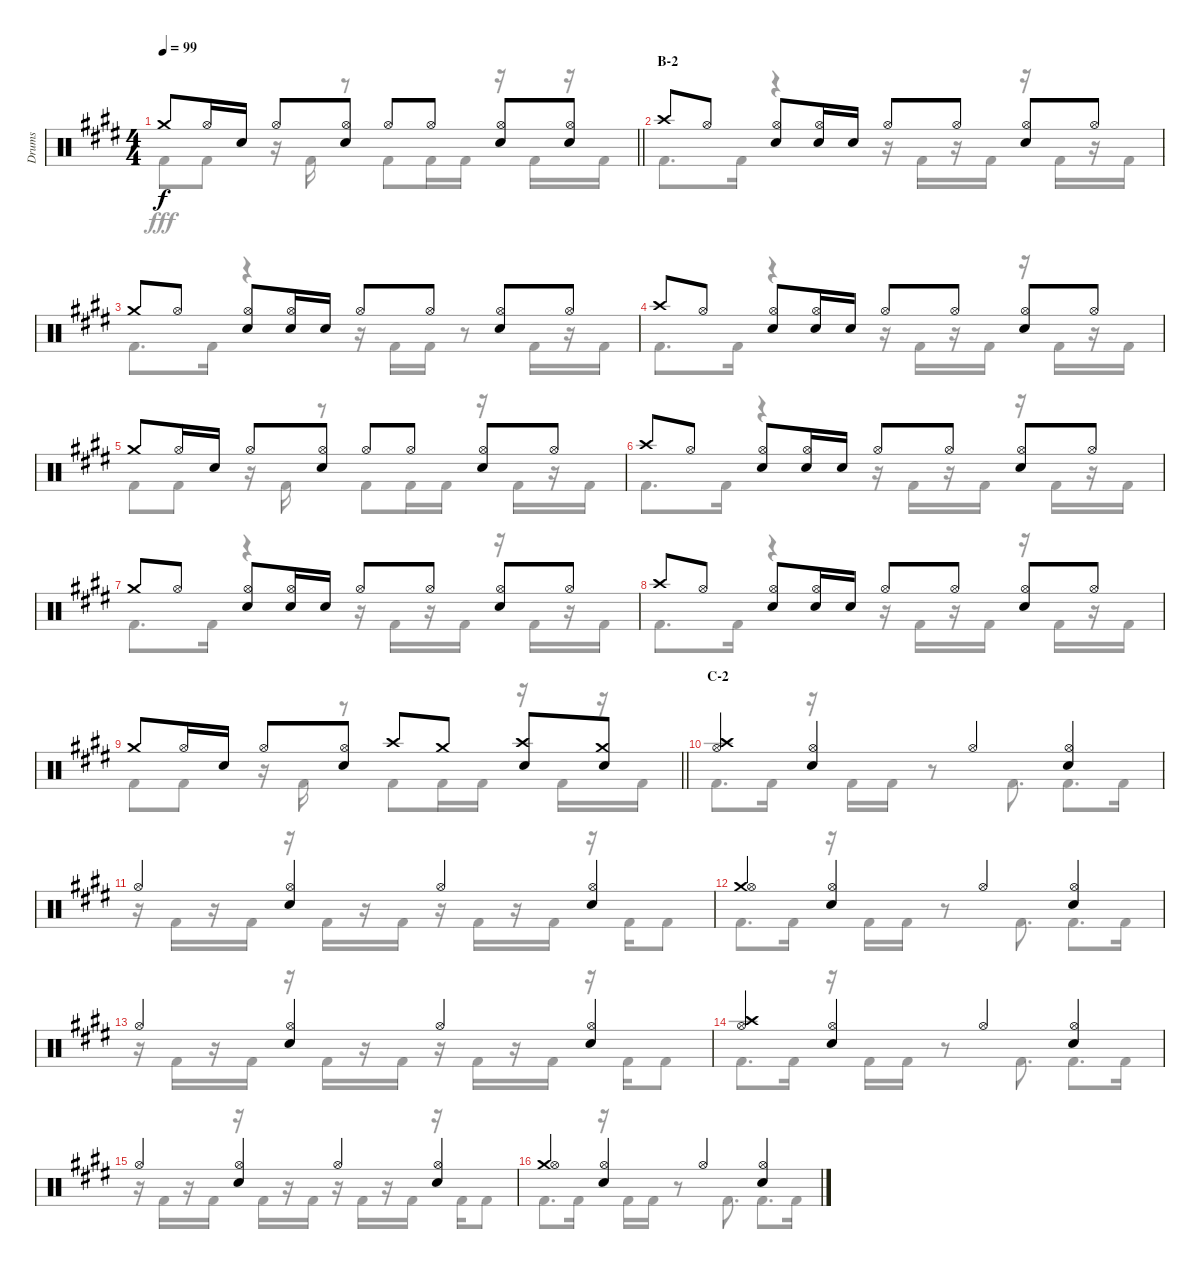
\track ("Drums" "Drums") {instrument percussion}
\staff {score}
\articulation defaults
\voice
\ts (4 4)
\tempo 99
\clef neutral
\barLineRight lightlight
\ks e "Crash medium (hit)".8{dy f} "Hi-Hat (open)".16 "Snare (hit) 2".16 "Hi-Hat (open)".8
("Hi-Hat (open)" "Snare (hit) 2").8 "Hi-Hat (open)".8 "Hi-Hat (open)".8 ("Hi-Hat (open)" "Snare (hit) 2").8 ("Hi-Hat (open)" "Snare (hit) 2").8 |
\section ("" "B-2")
"Crash high (hit)".8 "Hi-Hat (open)".8 ("Hi-Hat (open)" "Snare (hit) 2").8 ("Hi-Hat (open)" "Snare (hit) 2").16 "Snare (hit) 2".16 "Hi-Hat (open)".8 "Hi-Hat (open)".8 ("Hi-Hat (open)" "Snare (hit) 2").8 "Hi-Hat (open)".8 |
"Crash medium (hit)".8 "Hi-Hat (open)".8 ("Hi-Hat (open)" "Snare (hit) 2").8 ("Hi-Hat (open)" "Snare (hit) 2").16 "Snare (hit) 2".16 "Hi-Hat (open)".8 "Hi-Hat (open)".8 ("Hi-Hat (open)" "Snare (hit) 2").8 "Hi-Hat (open)".8 |
"Crash high (hit)".8 "Hi-Hat (open)".8 ("Hi-Hat (open)" "Snare (hit) 2").8 ("Hi-Hat (open)" "Snare (hit) 2").16 "Snare (hit) 2".16 "Hi-Hat (open)".8 "Hi-Hat (open)".8 ("Hi-Hat (open)" "Snare (hit) 2").8 "Hi-Hat (open)".8 |
"Crash medium (hit)".8 "Hi-Hat (open)".16 "Snare (hit) 2".16 "Hi-Hat (open)".8 ("Hi-Hat (open)" "Snare (hit) 2").8 "Hi-Hat (open)".8 "Hi-Hat (open)".8 ("Hi-Hat (open)" "Snare (hit) 2").8 "Hi-Hat (open)".8 |
"Crash high (hit)".8 "Hi-Hat (open)".8 ("Hi-Hat (open)" "Snare (hit) 2").8 ("Hi-Hat (open)" "Snare (hit) 2").16 "Snare (hit) 2".16 "Hi-Hat (open)".8 "Hi-Hat (open)".8 ("Hi-Hat (open)" "Snare (hit) 2").8 "Hi-Hat (open)".8 |
"Crash medium (hit)".8 "Hi-Hat (open)".8 ("Hi-Hat (open)" "Snare (hit) 2").8 ("Hi-Hat (open)" "Snare (hit) 2").16 "Snare (hit) 2".16 "Hi-Hat (open)".8 "Hi-Hat (open)".8 ("Hi-Hat (open)" "Snare (hit) 2").8 "Hi-Hat (open)".8 |
"Crash high (hit)".8 "Hi-Hat (open)".8 ("Hi-Hat (open)" "Snare (hit) 2").8 ("Hi-Hat (open)" "Snare (hit) 2").16 "Snare (hit) 2".16 "Hi-Hat (open)".8 "Hi-Hat (open)".8 ("Hi-Hat (open)" "Snare (hit) 2").8 "Hi-Hat (open)".8 |
\barLineRight lightlight "Crash medium (hit)".8 "Hi-Hat (open)".16 "Snare (hit) 2".16 "Hi-Hat (open)".8
("Hi-Hat (open)" "Snare (hit) 2").8 "Crash high (hit)".8 "Crash medium (hit)".8 ("Crash high (hit)" "Snare (hit) 2").8 ("Crash medium (hit)" "Snare (hit) 2").8 |
\section ("" "C-2")
("Crash high (hit)" "Hi-Hat (open)").4 ("Hi-Hat (open)" "Snare (hit) 2").4 "Hi-Hat (open)".4 ("Hi-Hat (open)" "Snare (hit) 2").4 |
"Hi-Hat (open)".4 ("Hi-Hat (open)" "Snare (hit) 2").4 "Hi-Hat (open)".4 ("Hi-Hat (open)" "Snare (hit) 2").4 |
("Crash medium (hit)" "Hi-Hat (open)").4 ("Hi-Hat (open)" "Snare (hit) 2").4 "Hi-Hat (open)".4 ("Hi-Hat (open)" "Snare (hit) 2").4 |
"Hi-Hat (open)".4 ("Hi-Hat (open)" "Snare (hit) 2").4 "Hi-Hat (open)".4 ("Hi-Hat (open)" "Snare (hit) 2").4 |
("Crash high (hit)" "Hi-Hat (open)").4 ("Hi-Hat (open)" "Snare (hit) 2").4 "Hi-Hat (open)".4 ("Hi-Hat (open)" "Snare (hit) 2").4 |
"Hi-Hat (open)".4 ("Hi-Hat (open)" "Snare (hit) 2").4 "Hi-Hat (open)".4 ("Hi-Hat (open)" "Snare (hit) 2").4 |
("Crash medium (hit)" "Hi-Hat (open)").4 ("Hi-Hat (open)" "Snare (hit) 2").4 "Hi-Hat (open)".4 ("Hi-Hat (open)" "Snare (hit) 2").4
\voice
\clef neutral
\ottava regular
\simile none
\barLineRight lightlight
\ks e "Kick (hit) 2".8{dy fff} "Kick (hit) 2".8
r.16 "Kick (hit) 2".16 r.8 "Kick (hit) 2".8 "Kick (hit) 2".16 "Kick (hit) 2".16 r.16 "Kick (hit) 2".16 r.16 "Kick (hit) 2".16 |
"Kick (hit) 2".8{d} "Kick (hit) 2".16 r.4 r.16 "Kick (hit) 2".16 r.16 "Kick (hit) 2".16 r.16 "Kick (hit) 2".16 r.16 "Kick (hit) 2".16 |
"Kick (hit) 2".8{d} "Kick (hit) 2".16 r.4 r.16 "Kick (hit) 2".16 "Kick (hit) 2".16 r.8 "Kick (hit) 2".16 r.16 "Kick (hit) 2".16 |
"Kick (hit) 2".8{d} "Kick (hit) 2".16 r.4 r.16 "Kick (hit) 2".16 r.16 "Kick (hit) 2".16 r.16 "Kick (hit) 2".16 r.16 "Kick (hit) 2".16 |
"Kick (hit) 2".8 "Kick (hit) 2".8 r.16 "Kick (hit) 2".16 r.8 "Kick (hit) 2".8 "Kick (hit) 2".16 "Kick (hit) 2".16 r.16 "Kick (hit) 2".16 r.16 "Kick (hit) 2".16 |
"Kick (hit) 2".8{d} "Kick (hit) 2".16 r.4 r.16 "Kick (hit) 2".16 r.16 "Kick (hit) 2".16 r.16 "Kick (hit) 2".16 r.16 "Kick (hit) 2".16 |
"Kick (hit) 2".8{d} "Kick (hit) 2".16 r.4 r.16 "Kick (hit) 2".16 r.16 "Kick (hit) 2".16 r.16 "Kick (hit) 2".16 r.16 "Kick (hit) 2".16 |
"Kick (hit) 2".8{d} "Kick (hit) 2".16 r.4 r.16 "Kick (hit) 2".16 r.16 "Kick (hit) 2".16 r.16 "Kick (hit) 2".16 r.16 "Kick (hit) 2".16 |
\barLineRight lightlight "Kick (hit) 2".8 "Kick (hit) 2".8
r.16 "Kick (hit) 2".16 r.8 "Kick (hit) 2".8 "Kick (hit) 2".16 "Kick (hit) 2".16 r.16 "Kick (hit) 2".16 r.16 "Kick (hit) 2".16 |
"Kick (hit) 2".8{d} "Kick (hit) 2".16 r.16 "Kick (hit) 2".16 "Kick (hit) 2".16 r.8 "Kick (hit) 2".8{d} "Kick (hit) 2".8{d} "Kick (hit) 2".16 |
r.16 "Kick (hit) 2".16 r.16 "Kick (hit) 2".16 r.16 "Kick (hit) 2".16 r.16 "Kick (hit) 2".16 r.16 "Kick (hit) 2".16 r.16 "Kick (hit) 2".16 r.16 "Kick (hit) 2".16 "Kick (hit) 2".8 |
"Kick (hit) 2".8{d} "Kick (hit) 2".16 r.16 "Kick (hit) 2".16 "Kick (hit) 2".16 r.8 "Kick (hit) 2".8{d} "Kick (hit) 2".8{d} "Kick (hit) 2".16 |
r.16 "Kick (hit) 2".16 r.16 "Kick (hit) 2".16 r.16 "Kick (hit) 2".16 r.16 "Kick (hit) 2".16 r.16 "Kick (hit) 2".16 r.16 "Kick (hit) 2".16 r.16 "Kick (hit) 2".16 "Kick (hit) 2".8 |
"Kick (hit) 2".8{d} "Kick (hit) 2".16 r.16 "Kick (hit) 2".16 "Kick (hit) 2".16 r.8 "Kick (hit) 2".8{d} "Kick (hit) 2".8{d} "Kick (hit) 2".16 |
r.16 "Kick (hit) 2".16 r.16 "Kick (hit) 2".16 r.16 "Kick (hit) 2".16 r.16 "Kick (hit) 2".16 r.16 "Kick (hit) 2".16 r.16 "Kick (hit) 2".16 r.16 "Kick (hit) 2".16 "Kick (hit) 2".8 |
"Kick (hit) 2".8{d} "Kick (hit) 2".16 r.16 "Kick (hit) 2".16 "Kick (hit) 2".16 r.8 "Kick (hit) 2".8{d} "Kick (hit) 2".8{d} "Kick (hit) 2".16
